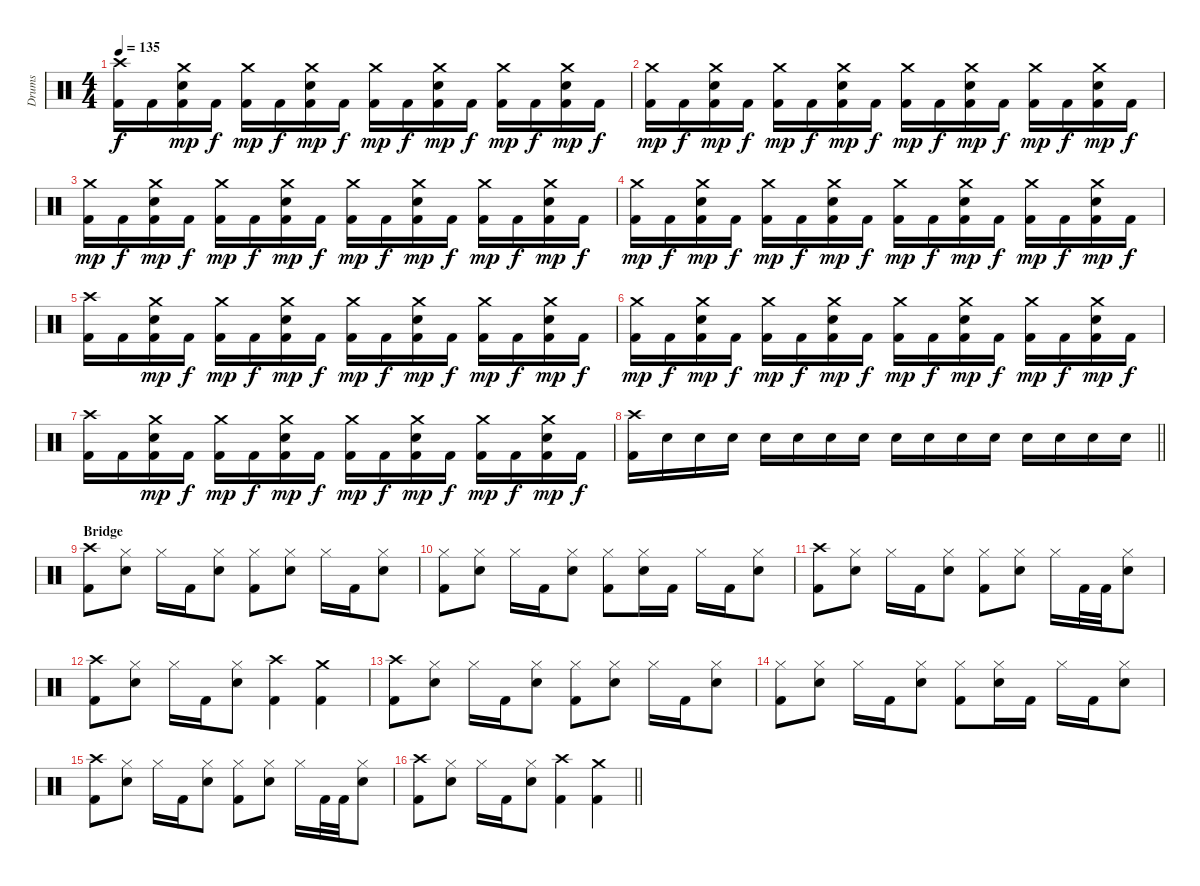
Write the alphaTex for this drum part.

\track ("Drums" "Drums") {instrument percussion}
\staff {score}
\articulation defaults
\ts (4 4)
\tempo 135
\clef neutral
\ks c
("Crash high (hit)" "Kick (hit) 2").16{dy f} "Kick (hit) 2".16 ("Crash medium (hit)" "Snare (hit) 2" "Kick (hit) 2").16{dy mp} "Kick (hit) 2".16{dy f} ("Crash medium (hit)" "Kick (hit) 2").16{dy mp} "Kick (hit) 2".16{dy f} ("Crash medium (hit)" "Snare (hit) 2" "Kick (hit) 2").16{dy mp} "Kick (hit) 2".16{dy f} ("Crash medium (hit)" "Kick (hit) 2").16{dy mp} "Kick (hit) 2".16{dy f} ("Crash medium (hit)" "Snare (hit) 2" "Kick (hit) 2").16{dy mp} "Kick (hit) 2".16{dy f} ("Crash medium (hit)" "Kick (hit) 2").16{dy mp} "Kick (hit) 2".16{dy f} ("Crash medium (hit)" "Snare (hit) 2" "Kick (hit) 2").16{dy mp} "Kick (hit) 2".16{dy f} |
("Crash medium (hit)" "Kick (hit) 2").16{dy mp} "Kick (hit) 2".16{dy f} ("Crash medium (hit)" "Snare (hit) 2" "Kick (hit) 2").16{dy mp} "Kick (hit) 2".16{dy f} ("Crash medium (hit)" "Kick (hit) 2").16{dy mp} "Kick (hit) 2".16{dy f} ("Crash medium (hit)" "Snare (hit) 2" "Kick (hit) 2").16{dy mp} "Kick (hit) 2".16{dy f} ("Crash medium (hit)" "Kick (hit) 2").16{dy mp} "Kick (hit) 2".16{dy f} ("Crash medium (hit)" "Snare (hit) 2" "Kick (hit) 2").16{dy mp} "Kick (hit) 2".16{dy f} ("Crash medium (hit)" "Kick (hit) 2").16{dy mp} "Kick (hit) 2".16{dy f} ("Crash medium (hit)" "Snare (hit) 2" "Kick (hit) 2").16{dy mp} "Kick (hit) 2".16{dy f} |
("Crash medium (hit)" "Kick (hit) 2").16{dy mp} "Kick (hit) 2".16{dy f} ("Crash medium (hit)" "Snare (hit) 2" "Kick (hit) 2").16{dy mp} "Kick (hit) 2".16{dy f} ("Crash medium (hit)" "Kick (hit) 2").16{dy mp} "Kick (hit) 2".16{dy f} ("Crash medium (hit)" "Snare (hit) 2" "Kick (hit) 2").16{dy mp} "Kick (hit) 2".16{dy f} ("Crash medium (hit)" "Kick (hit) 2").16{dy mp} "Kick (hit) 2".16{dy f} ("Crash medium (hit)" "Snare (hit) 2" "Kick (hit) 2").16{dy mp} "Kick (hit) 2".16{dy f} ("Crash medium (hit)" "Kick (hit) 2").16{dy mp} "Kick (hit) 2".16{dy f} ("Crash medium (hit)" "Snare (hit) 2" "Kick (hit) 2").16{dy mp} "Kick (hit) 2".16{dy f} |
("Crash medium (hit)" "Kick (hit) 2").16{dy mp} "Kick (hit) 2".16{dy f} ("Crash medium (hit)" "Snare (hit) 2" "Kick (hit) 2").16{dy mp} "Kick (hit) 2".16{dy f} ("Crash medium (hit)" "Kick (hit) 2").16{dy mp} "Kick (hit) 2".16{dy f} ("Crash medium (hit)" "Snare (hit) 2" "Kick (hit) 2").16{dy mp} "Kick (hit) 2".16{dy f} ("Crash medium (hit)" "Kick (hit) 2").16{dy mp} "Kick (hit) 2".16{dy f} ("Crash medium (hit)" "Snare (hit) 2" "Kick (hit) 2").16{dy mp} "Kick (hit) 2".16{dy f} ("Crash medium (hit)" "Kick (hit) 2").16{dy mp} "Kick (hit) 2".16{dy f} ("Crash medium (hit)" "Snare (hit) 2" "Kick (hit) 2").16{dy mp} "Kick (hit) 2".16{dy f} |
("Crash high (hit)" "Kick (hit) 2").16 "Kick (hit) 2".16 ("Crash medium (hit)" "Snare (hit) 2" "Kick (hit) 2").16{dy mp} "Kick (hit) 2".16{dy f} ("Crash medium (hit)" "Kick (hit) 2").16{dy mp} "Kick (hit) 2".16{dy f} ("Crash medium (hit)" "Snare (hit) 2" "Kick (hit) 2").16{dy mp} "Kick (hit) 2".16{dy f} ("Crash medium (hit)" "Kick (hit) 2").16{dy mp} "Kick (hit) 2".16{dy f} ("Crash medium (hit)" "Snare (hit) 2" "Kick (hit) 2").16{dy mp} "Kick (hit) 2".16{dy f} ("Crash medium (hit)" "Kick (hit) 2").16{dy mp} "Kick (hit) 2".16{dy f} ("Crash medium (hit)" "Snare (hit) 2" "Kick (hit) 2").16{dy mp} "Kick (hit) 2".16{dy f} |
("Crash medium (hit)" "Kick (hit) 2").16{dy mp} "Kick (hit) 2".16{dy f} ("Crash medium (hit)" "Snare (hit) 2" "Kick (hit) 2").16{dy mp} "Kick (hit) 2".16{dy f} ("Crash medium (hit)" "Kick (hit) 2").16{dy mp} "Kick (hit) 2".16{dy f} ("Crash medium (hit)" "Snare (hit) 2" "Kick (hit) 2").16{dy mp} "Kick (hit) 2".16{dy f} ("Crash medium (hit)" "Kick (hit) 2").16{dy mp} "Kick (hit) 2".16{dy f} ("Crash medium (hit)" "Snare (hit) 2" "Kick (hit) 2").16{dy mp} "Kick (hit) 2".16{dy f} ("Crash medium (hit)" "Kick (hit) 2").16{dy mp} "Kick (hit) 2".16{dy f} ("Crash medium (hit)" "Snare (hit) 2" "Kick (hit) 2").16{dy mp} "Kick (hit) 2".16{dy f} |
("Crash high (hit)" "Kick (hit) 2").16 "Kick (hit) 2".16 ("Crash medium (hit)" "Snare (hit) 2" "Kick (hit) 2").16{dy mp} "Kick (hit) 2".16{dy f} ("Crash medium (hit)" "Kick (hit) 2").16{dy mp} "Kick (hit) 2".16{dy f} ("Crash medium (hit)" "Snare (hit) 2" "Kick (hit) 2").16{dy mp} "Kick (hit) 2".16{dy f} ("Crash medium (hit)" "Kick (hit) 2").16{dy mp} "Kick (hit) 2".16{dy f} ("Crash medium (hit)" "Snare (hit) 2" "Kick (hit) 2").16{dy mp} "Kick (hit) 2".16{dy f} ("Crash medium (hit)" "Kick (hit) 2").16{dy mp} "Kick (hit) 2".16{dy f} ("Crash medium (hit)" "Snare (hit) 2" "Kick (hit) 2").16{dy mp} "Kick (hit) 2".16{dy f} |
\barLineRight lightlight
("Crash high (hit)" "Kick (hit) 2").16 "Snare (hit) 2".16 "Snare (hit) 2".16 "Snare (hit) 2".16 "Snare (hit) 2".16 "Snare (hit) 2".16 "Snare (hit) 2".16 "Snare (hit) 2".16 "Snare (hit) 2".16 "Snare (hit) 2".16 "Snare (hit) 2".16 "Snare (hit) 2".16 "Snare (hit) 2".16 "Snare (hit) 2".16 "Snare (hit) 2".16 "Snare (hit) 2".16 |
\section ("" "Bridge")
("Crash high (hit)" "Kick (hit) 2").8 ("Hi-Hat (closed)" "Snare (hit) 2").8 "Hi-Hat (closed)".16 "Kick (hit) 2".16 ("Hi-Hat (closed)" "Snare (hit) 2").8 ("Hi-Hat (closed)" "Kick (hit) 2").8 ("Hi-Hat (closed)" "Snare (hit) 2").8 "Hi-Hat (closed)".16 "Kick (hit) 2".16 ("Hi-Hat (closed)" "Snare (hit) 2").8 |
("Hi-Hat (closed)" "Kick (hit) 2").8 ("Hi-Hat (closed)" "Snare (hit) 2").8 "Hi-Hat (closed)".16 "Kick (hit) 2".16 ("Hi-Hat (closed)" "Snare (hit) 2").8 ("Hi-Hat (closed)" "Kick (hit) 2").8 ("Hi-Hat (closed)" "Snare (hit) 2").16 "Kick (hit) 2".16 "Hi-Hat (closed)".16 "Kick (hit) 2".16 ("Hi-Hat (closed)" "Snare (hit) 2").8 |
("Crash high (hit)" "Kick (hit) 2").8 ("Hi-Hat (closed)" "Snare (hit) 2").8 "Hi-Hat (closed)".16 "Kick (hit) 2".16 ("Hi-Hat (closed)" "Snare (hit) 2").8 ("Hi-Hat (closed)" "Kick (hit) 2").8 ("Hi-Hat (closed)" "Snare (hit) 2").8 "Hi-Hat (closed)".16 "Kick (hit) 2".32 "Kick (hit) 2".32 ("Hi-Hat (closed)" "Snare (hit) 2").8 |
("Crash high (hit)" "Kick (hit) 2").8 ("Hi-Hat (closed)" "Snare (hit) 2").8 "Hi-Hat (closed)".16 "Kick (hit) 2".16 ("Hi-Hat (closed)" "Snare (hit) 2").8 ("Crash high (hit)" "Kick (hit) 2").4 ("Crash medium (hit)" "Kick (hit) 2").4 |
("Crash high (hit)" "Kick (hit) 2").8 ("Hi-Hat (closed)" "Snare (hit) 2").8 "Hi-Hat (closed)".16 "Kick (hit) 2".16 ("Hi-Hat (closed)" "Snare (hit) 2").8 ("Hi-Hat (closed)" "Kick (hit) 2").8 ("Hi-Hat (closed)" "Snare (hit) 2").8 "Hi-Hat (closed)".16 "Kick (hit) 2".16 ("Hi-Hat (closed)" "Snare (hit) 2").8 |
("Hi-Hat (closed)" "Kick (hit) 2").8 ("Hi-Hat (closed)" "Snare (hit) 2").8 "Hi-Hat (closed)".16 "Kick (hit) 2".16 ("Hi-Hat (closed)" "Snare (hit) 2").8 ("Hi-Hat (closed)" "Kick (hit) 2").8 ("Hi-Hat (closed)" "Snare (hit) 2").16 "Kick (hit) 2".16 "Hi-Hat (closed)".16 "Kick (hit) 2".16 ("Hi-Hat (closed)" "Snare (hit) 2").8 |
("Crash high (hit)" "Kick (hit) 2").8 ("Hi-Hat (closed)" "Snare (hit) 2").8 "Hi-Hat (closed)".16 "Kick (hit) 2".16 ("Hi-Hat (closed)" "Snare (hit) 2").8 ("Hi-Hat (closed)" "Kick (hit) 2").8 ("Hi-Hat (closed)" "Snare (hit) 2").8 "Hi-Hat (closed)".16 "Kick (hit) 2".32 "Kick (hit) 2".32 ("Hi-Hat (closed)" "Snare (hit) 2").8 |
\barLineRight lightlight
("Crash high (hit)" "Kick (hit) 2").8 ("Hi-Hat (closed)" "Snare (hit) 2").8 "Hi-Hat (closed)".16 "Kick (hit) 2".16 ("Hi-Hat (closed)" "Snare (hit) 2").8 ("Crash high (hit)" "Kick (hit) 2").4 ("Crash medium (hit)" "Kick (hit) 2").4
